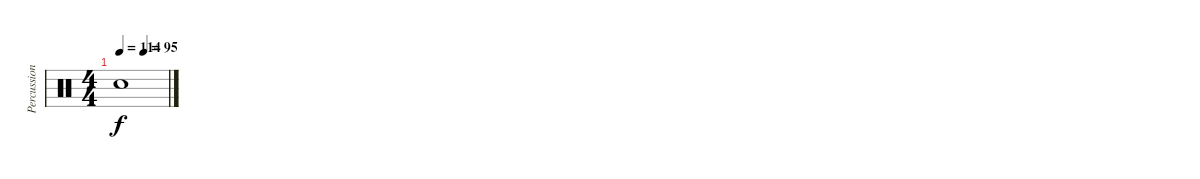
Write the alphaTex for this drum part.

\track ("Percussion" "Percussion") {instrument percussion}
\staff {score}
\articulation defaults
\ts (4 4)
\tempo 114
\tempo (95 0.5)
\clef neutral
\ks c "Snare (hit)"{t}.1{dy f}
